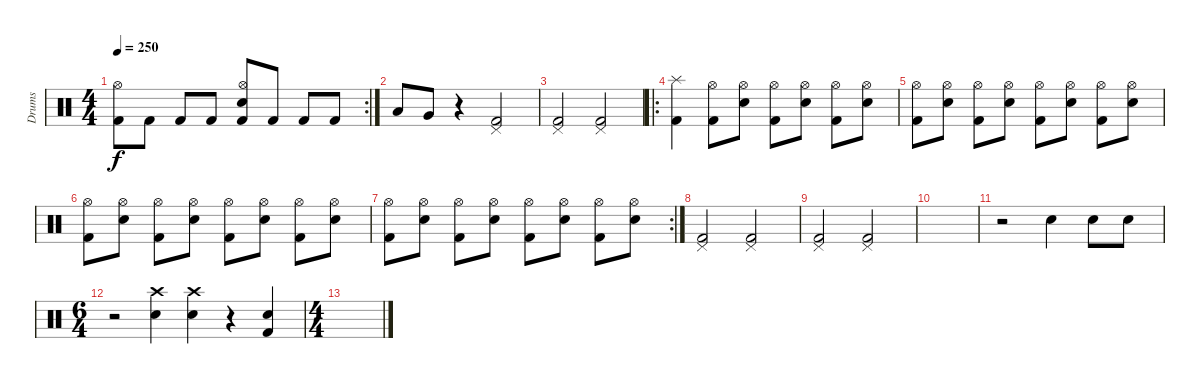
\track ("Drums" "Drums") {instrument percussion}
\staff {score}
\articulation defaults
\rc 2
\ts (4 4)
\tempo 250
\clef neutral
\ks c
("Kick (hit) 2" "Hi-Hat (open)").8{dy f} "Kick (hit) 2".8 "Kick (hit) 2".8 "Kick (hit) 2".8 ("Snare (hit) 2" "Kick (hit) 2" "Hi-Hat (open)").8 "Kick (hit) 2".8 "Kick (hit) 2".8 "Kick (hit) 2".8 |
"Low Tom (hit)".8 "Very Low Tom (hit)".8 r.4 ("Pedal Hi-Hat (hit)" "Kick (hit) 2").2 |
("Pedal Hi-Hat (hit)" "Kick (hit) 2").2 ("Pedal Hi-Hat (hit)" "Kick (hit) 2").2 |
\ro
("Splash (hit)" "Kick (hit) 2").4 ("Hi-Hat (open)" "Kick (hit) 2").8 ("Hi-Hat (open)" "Snare (hit) 2").8 ("Hi-Hat (open)" "Kick (hit) 2").8 ("Hi-Hat (open)" "Snare (hit) 2").8 ("Hi-Hat (open)" "Kick (hit) 2").8 ("Hi-Hat (open)" "Snare (hit) 2").8 |
("Hi-Hat (open)" "Kick (hit) 2").8 ("Hi-Hat (open)" "Snare (hit) 2").8 ("Hi-Hat (open)" "Kick (hit) 2").8 ("Hi-Hat (open)" "Snare (hit) 2").8 ("Hi-Hat (open)" "Kick (hit) 2").8 ("Hi-Hat (open)" "Snare (hit) 2").8 ("Hi-Hat (open)" "Kick (hit) 2").8 ("Hi-Hat (open)" "Snare (hit) 2").8 |
("Hi-Hat (open)" "Kick (hit) 2").8 ("Hi-Hat (open)" "Snare (hit) 2").8 ("Hi-Hat (open)" "Kick (hit) 2").8 ("Hi-Hat (open)" "Snare (hit) 2").8 ("Hi-Hat (open)" "Kick (hit) 2").8 ("Hi-Hat (open)" "Snare (hit) 2").8 ("Hi-Hat (open)" "Kick (hit) 2").8 ("Hi-Hat (open)" "Snare (hit) 2").8 |
\rc 2
("Hi-Hat (open)" "Kick (hit) 2").8 ("Hi-Hat (open)" "Snare (hit) 2").8 ("Hi-Hat (open)" "Kick (hit) 2").8 ("Hi-Hat (open)" "Snare (hit) 2").8 ("Hi-Hat (open)" "Kick (hit) 2").8 ("Hi-Hat (open)" "Snare (hit) 2").8 ("Hi-Hat (open)" "Kick (hit) 2").8 ("Hi-Hat (open)" "Snare (hit) 2").8 |
("Pedal Hi-Hat (hit)" "Kick (hit) 2").2 ("Pedal Hi-Hat (hit)" "Kick (hit) 2").2 |
("Pedal Hi-Hat (hit)" "Kick (hit) 2").2 ("Pedal Hi-Hat (hit)" "Kick (hit) 2").2 |
|
r.2 "Snare (hit) 2".4 "Snare (hit) 2".8 "Snare (hit) 2".8 |
\ts (6 4)
r.2 ("Crash high (hit)" "Snare (hit) 2").4 ("Crash high (hit)" "Snare (hit) 2").4 r.4 ("Snare (hit) 2" "Kick (hit) 2").4 |
\ts (4 4)
